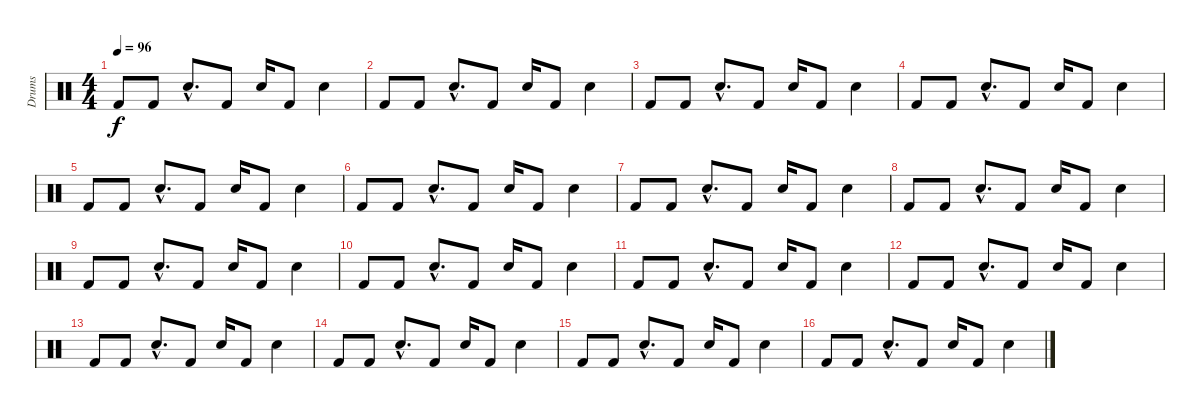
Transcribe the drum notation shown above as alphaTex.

\track ("Drums" "Drums") {instrument percussion}
\staff {score}
\articulation defaults
\ts (4 4)
\tempo 96
\clef neutral
\ks c "Kick (hit) 2".8{dy f} "Kick (hit) 2".8 "Snare (hit) 2"{hac}.8{d} "Kick (hit) 2".8 "Snare (hit) 2".16 "Kick (hit) 2".8 "Snare (hit) 2".4
|
"Kick (hit) 2".8 "Kick (hit) 2".8 "Snare (hit) 2"{hac}.8{d} "Kick (hit) 2".8 "Snare (hit) 2".16 "Kick (hit) 2".8 "Snare (hit) 2".4 |
"Kick (hit) 2".8 "Kick (hit) 2".8 "Snare (hit) 2"{hac}.8{d} "Kick (hit) 2".8 "Snare (hit) 2".16 "Kick (hit) 2".8 "Snare (hit) 2".4 |
"Kick (hit) 2".8 "Kick (hit) 2".8 "Snare (hit) 2"{hac}.8{d} "Kick (hit) 2".8 "Snare (hit) 2".16 "Kick (hit) 2".8 "Snare (hit) 2".4 |
"Kick (hit) 2".8 "Kick (hit) 2".8 "Snare (hit) 2"{hac}.8{d} "Kick (hit) 2".8 "Snare (hit) 2".16 "Kick (hit) 2".8 "Snare (hit) 2".4 |
"Kick (hit) 2".8 "Kick (hit) 2".8 "Snare (hit) 2"{hac}.8{d} "Kick (hit) 2".8 "Snare (hit) 2".16 "Kick (hit) 2".8 "Snare (hit) 2".4 |
"Kick (hit) 2".8 "Kick (hit) 2".8 "Snare (hit) 2"{hac}.8{d} "Kick (hit) 2".8 "Snare (hit) 2".16 "Kick (hit) 2".8 "Snare (hit) 2".4 |
"Kick (hit) 2".8 "Kick (hit) 2".8 "Snare (hit) 2"{hac}.8{d} "Kick (hit) 2".8 "Snare (hit) 2".16 "Kick (hit) 2".8 "Snare (hit) 2".4 |
"Kick (hit) 2".8 "Kick (hit) 2".8 "Snare (hit) 2"{hac}.8{d} "Kick (hit) 2".8 "Snare (hit) 2".16 "Kick (hit) 2".8 "Snare (hit) 2".4 |
"Kick (hit) 2".8 "Kick (hit) 2".8 "Snare (hit) 2"{hac}.8{d} "Kick (hit) 2".8 "Snare (hit) 2".16 "Kick (hit) 2".8 "Snare (hit) 2".4 |
"Kick (hit) 2".8 "Kick (hit) 2".8 "Snare (hit) 2"{hac}.8{d} "Kick (hit) 2".8 "Snare (hit) 2".16 "Kick (hit) 2".8 "Snare (hit) 2".4 |
"Kick (hit) 2".8 "Kick (hit) 2".8 "Snare (hit) 2"{hac}.8{d} "Kick (hit) 2".8 "Snare (hit) 2".16 "Kick (hit) 2".8 "Snare (hit) 2".4 |
"Kick (hit) 2".8 "Kick (hit) 2".8 "Snare (hit) 2"{hac}.8{d} "Kick (hit) 2".8 "Snare (hit) 2".16 "Kick (hit) 2".8 "Snare (hit) 2".4 |
"Kick (hit) 2".8 "Kick (hit) 2".8 "Snare (hit) 2"{hac}.8{d} "Kick (hit) 2".8 "Snare (hit) 2".16 "Kick (hit) 2".8 "Snare (hit) 2".4 |
"Kick (hit) 2".8 "Kick (hit) 2".8 "Snare (hit) 2"{hac}.8{d} "Kick (hit) 2".8 "Snare (hit) 2".16 "Kick (hit) 2".8 "Snare (hit) 2".4 |
"Kick (hit) 2".8 "Kick (hit) 2".8 "Snare (hit) 2"{hac}.8{d} "Kick (hit) 2".8 "Snare (hit) 2".16 "Kick (hit) 2".8 "Snare (hit) 2".4
